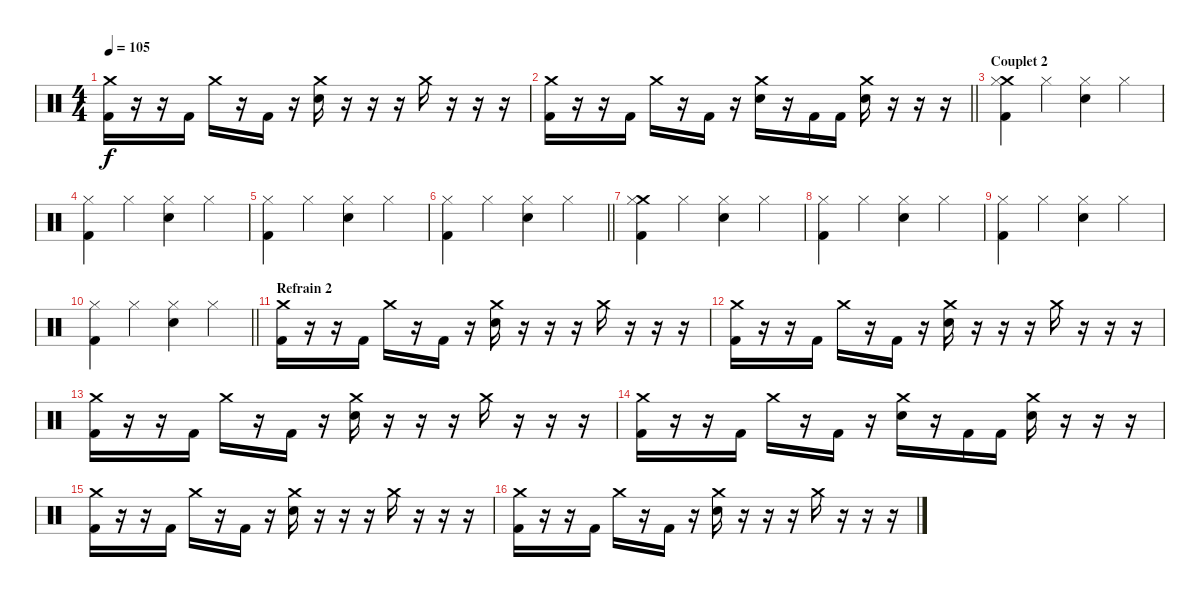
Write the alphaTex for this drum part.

\track "" {instrument percussion}
\staff {score}
\articulation defaults
\ts (4 4)
\tempo 105
\clef neutral
\ks c
("Crash medium (hit)" "Kick (hit) 2").16{dy f} r.16 r.16 "Kick (hit) 2".16 "Crash medium (hit)".16 r.16 "Kick (hit) 2".16 r.16 ("Crash medium (hit)" "Snare (hit) 2").16 r.16 r.16 r.16 "Crash medium (hit)".16 r.16 r.16 r.16 |
\barLineRight lightlight
("Crash medium (hit)" "Kick (hit) 2").16 r.16 r.16 "Kick (hit) 2".16 "Crash medium (hit)".16 r.16 "Kick (hit) 2".16 r.16 ("Crash medium (hit)" "Snare (hit) 2").16 r.16 "Kick (hit) 2".16 "Kick (hit) 2".16 ("Crash medium (hit)" "Snare (hit) 2").16 r.16 r.16 r.16 |
\section ("" "Couplet 2")
("Crash medium (hit)" "Hi-Hat (closed)" "Kick (hit) 2").4 "Hi-Hat (closed)".4 ("Hi-Hat (closed)" "Snare (hit) 2").4 "Hi-Hat (closed)".4 |
("Hi-Hat (closed)" "Kick (hit) 2").4 "Hi-Hat (closed)".4 ("Hi-Hat (closed)" "Snare (hit) 2").4 "Hi-Hat (closed)".4 |
("Hi-Hat (closed)" "Kick (hit) 2").4 "Hi-Hat (closed)".4 ("Hi-Hat (closed)" "Snare (hit) 2").4 "Hi-Hat (closed)".4 |
\barLineRight lightlight
("Hi-Hat (closed)" "Kick (hit) 2").4 "Hi-Hat (closed)".4 ("Hi-Hat (closed)" "Snare (hit) 2").4 "Hi-Hat (closed)".4 |
("Crash medium (hit)" "Hi-Hat (closed)" "Kick (hit) 2").4 "Hi-Hat (closed)".4 ("Hi-Hat (closed)" "Snare (hit) 2").4 "Hi-Hat (closed)".4 |
("Hi-Hat (closed)" "Kick (hit) 2").4 "Hi-Hat (closed)".4 ("Hi-Hat (closed)" "Snare (hit) 2").4 "Hi-Hat (closed)".4 |
("Hi-Hat (closed)" "Kick (hit) 2").4 "Hi-Hat (closed)".4 ("Hi-Hat (closed)" "Snare (hit) 2").4 "Hi-Hat (closed)".4 |
\barLineRight lightlight
("Hi-Hat (closed)" "Kick (hit) 2").4 "Hi-Hat (closed)".4 ("Hi-Hat (closed)" "Snare (hit) 2").4 "Hi-Hat (closed)".4 |
\section ("" "Refrain 2")
("Crash medium (hit)" "Kick (hit) 2").16 r.16 r.16 "Kick (hit) 2".16 "Crash medium (hit)".16 r.16 "Kick (hit) 2".16 r.16 ("Crash medium (hit)" "Snare (hit) 2").16 r.16 r.16 r.16 "Crash medium (hit)".16 r.16 r.16 r.16 |
("Crash medium (hit)" "Kick (hit) 2").16 r.16 r.16 "Kick (hit) 2".16 "Crash medium (hit)".16 r.16 "Kick (hit) 2".16 r.16 ("Crash medium (hit)" "Snare (hit) 2").16 r.16 r.16 r.16 "Crash medium (hit)".16 r.16 r.16 r.16 |
("Crash medium (hit)" "Kick (hit) 2").16 r.16 r.16 "Kick (hit) 2".16 "Crash medium (hit)".16 r.16 "Kick (hit) 2".16 r.16 ("Crash medium (hit)" "Snare (hit) 2").16 r.16 r.16 r.16 "Crash medium (hit)".16 r.16 r.16 r.16 |
("Crash medium (hit)" "Kick (hit) 2").16 r.16 r.16 "Kick (hit) 2".16 "Crash medium (hit)".16 r.16 "Kick (hit) 2".16 r.16 ("Crash medium (hit)" "Snare (hit) 2").16 r.16 "Kick (hit) 2".16 "Kick (hit) 2".16 ("Crash medium (hit)" "Snare (hit) 2").16 r.16 r.16 r.16 |
("Crash medium (hit)" "Kick (hit) 2").16 r.16 r.16 "Kick (hit) 2".16 "Crash medium (hit)".16 r.16 "Kick (hit) 2".16 r.16 ("Crash medium (hit)" "Snare (hit) 2").16 r.16 r.16 r.16 "Crash medium (hit)".16 r.16 r.16 r.16 |
("Crash medium (hit)" "Kick (hit) 2").16 r.16 r.16 "Kick (hit) 2".16 "Crash medium (hit)".16 r.16 "Kick (hit) 2".16 r.16 ("Crash medium (hit)" "Snare (hit) 2").16 r.16 r.16 r.16 "Crash medium (hit)".16 r.16 r.16 r.16
